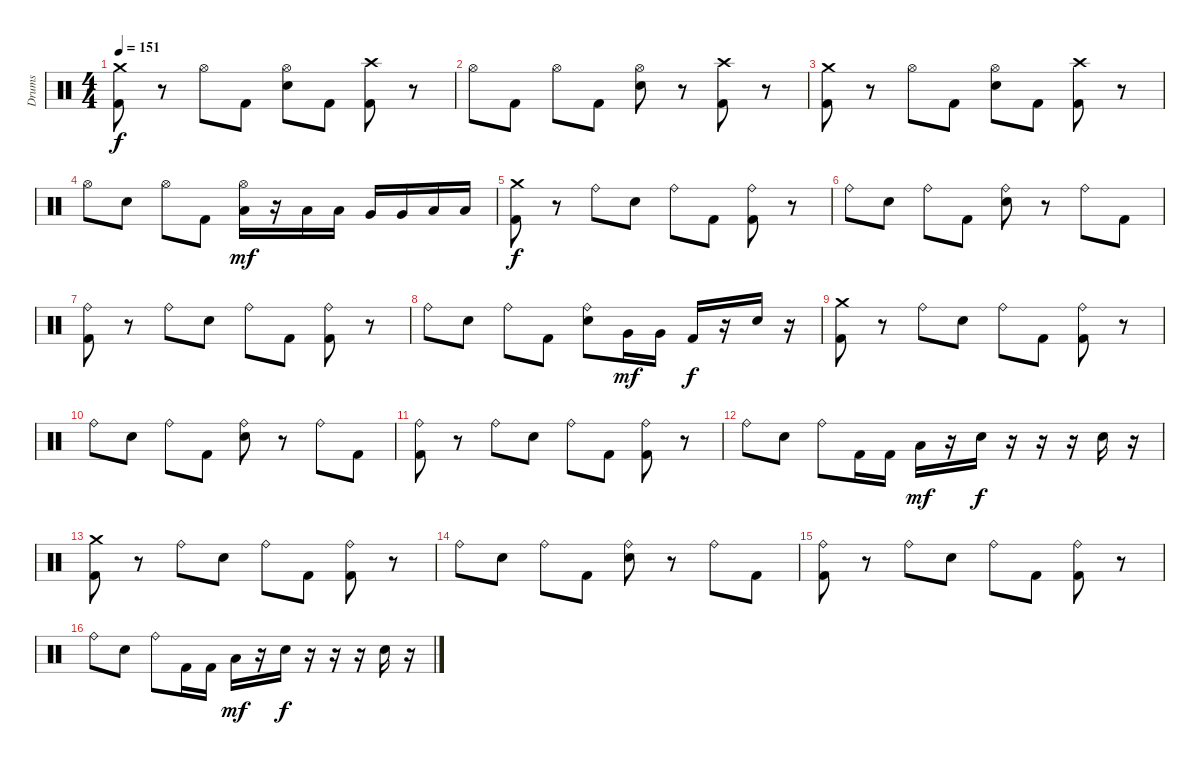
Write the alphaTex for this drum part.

\track ("Drums" "Drums") {instrument percussion}
\staff {score}
\articulation defaults
\ts (4 4)
\tempo 151
\clef neutral
\ks c
("Crash medium (hit)" "Kick (hit) 2").8{dy f} r.8 "Hi-Hat (open)".8 "Kick (hit) 2".8 ("Hi-Hat (open)" "Snare (hit) 2").8 "Kick (hit) 2".8 ("Crash high (hit)" "Kick (hit) 2").8 r.8 |
"Hi-Hat (open)".8 "Kick (hit) 2".8 "Hi-Hat (open)".8 "Kick (hit) 2".8 ("Hi-Hat (open)" "Snare (hit) 2").8 r.8 ("Crash high (hit)" "Kick (hit) 2").8 r.8 |
("Crash medium (hit)" "Kick (hit) 2").8 r.8 "Hi-Hat (open)".8 "Kick (hit) 2".8 ("Hi-Hat (open)" "Snare (hit) 2").8 "Kick (hit) 2".8 ("Crash high (hit)" "Kick (hit) 2").8 r.8 |
"Hi-Hat (open)".8 "Snare (hit) 2".8 "Hi-Hat (open)".8 "Kick (hit) 2".8 ("Hi-Hat (open)" "Low Tom (hit)").16{dy mf} r.16 "Low Tom (hit)".16 "Low Tom (hit)".16 "Very Low Tom (hit)".16 "Very Low Tom (hit)".16 "Low Floor Tom (hit)".16 "Low Floor Tom (hit)".16 |
("Crash medium (hit)" "Kick (hit) 2").8{dy f} r.8 "Ride (bell)".8 "Snare (hit) 2".8 "Ride (bell)".8 "Kick (hit) 2".8 ("Ride (bell)" "Kick (hit) 2").8 r.8 |
"Ride (bell)".8 "Snare (hit) 2".8 "Ride (bell)".8 "Kick (hit) 2".8 ("Ride (bell)" "Snare (hit) 2").8 r.8 "Ride (bell)".8 "Kick (hit) 2".8 |
("Ride (bell)" "Kick (hit) 2").8 r.8 "Ride (bell)".8 "Snare (hit) 2".8 "Ride (bell)".8 "Kick (hit) 2".8 ("Ride (bell)" "Kick (hit) 2").8 r.8 |
"Ride (bell)".8 "Snare (hit) 2".8 "Ride (bell)".8 "Kick (hit) 2".8 ("Ride (bell)" "Snare (hit) 2").8 "Very Low Tom (hit)".16{dy mf} "Very Low Tom (hit)".16 "Kick (hit) 2".16{dy f} r.16 "Snare (hit) 2".16 r.16 |
("Crash medium (hit)" "Kick (hit) 2").8 r.8 "Ride (bell)".8 "Snare (hit) 2".8 "Ride (bell)".8 "Kick (hit) 2".8 ("Ride (bell)" "Kick (hit) 2").8 r.8 |
"Ride (bell)".8 "Snare (hit) 2".8 "Ride (bell)".8 "Kick (hit) 2".8 ("Ride (bell)" "Snare (hit) 2").8 r.8 "Ride (bell)".8 "Kick (hit) 2".8 |
("Ride (bell)" "Kick (hit) 2").8 r.8 "Ride (bell)".8 "Snare (hit) 2".8 "Ride (bell)".8 "Kick (hit) 2".8 ("Ride (bell)" "Kick (hit) 2").8 r.8 |
"Ride (bell)".8 "Snare (hit) 2".8 "Ride (bell)".8 "Kick (hit) 2".16 "Kick (hit) 2".16 "Low Tom (hit)".16{dy mf} r.16 "Snare (hit) 2".16{dy f} r.16 r.16 r.16 "Snare (hit) 2".16 r.16 |
("Crash medium (hit)" "Kick (hit) 2").8 r.8 "Ride (bell)".8 "Snare (hit) 2".8 "Ride (bell)".8 "Kick (hit) 2".8 ("Ride (bell)" "Kick (hit) 2").8 r.8 |
"Ride (bell)".8 "Snare (hit) 2".8 "Ride (bell)".8 "Kick (hit) 2".8 ("Ride (bell)" "Snare (hit) 2").8 r.8 "Ride (bell)".8 "Kick (hit) 2".8 |
("Ride (bell)" "Kick (hit) 2").8 r.8 "Ride (bell)".8 "Snare (hit) 2".8 "Ride (bell)".8 "Kick (hit) 2".8 ("Ride (bell)" "Kick (hit) 2").8 r.8 |
"Ride (bell)".8 "Snare (hit) 2".8 "Ride (bell)".8 "Kick (hit) 2".16 "Kick (hit) 2".16 "Low Tom (hit)".16{dy mf} r.16 "Snare (hit) 2".16{dy f} r.16 r.16 r.16 "Snare (hit) 2".16 r.16
